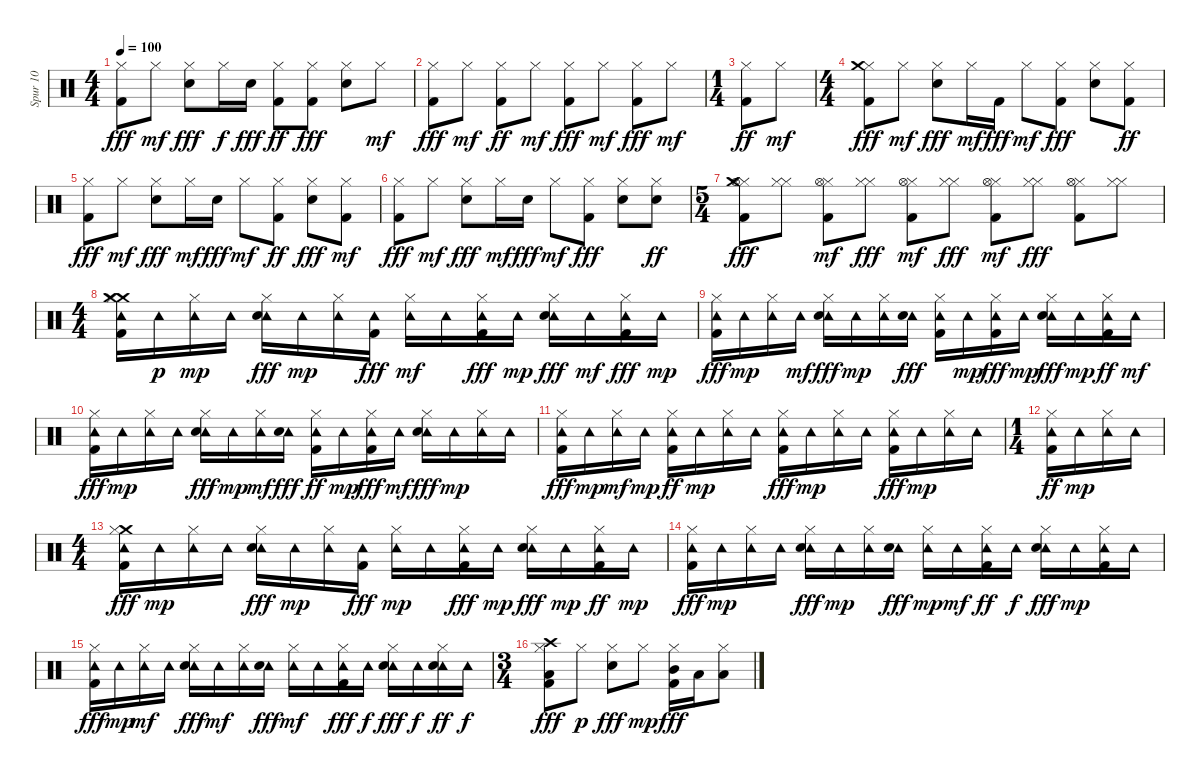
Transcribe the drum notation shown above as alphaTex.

\track ("Spur 10" "Spur 10") {instrument percussion}
\staff {score}
\articulation defaults
\ts (4 4)
\tempo 100
\clef neutral
\ks c
("Hi-Hat (closed)" "Kick (hit) 2").8{dy fff} "Hi-Hat (closed)".8{dy mf} ("Hi-Hat (closed)" "Metronome (bell)").8{dy fff} "Hi-Hat (closed)".16{dy f} "Metronome (bell)".16{dy fff} ("Hi-Hat (closed)" "Kick (hit) 2").8{dy ff} ("Hi-Hat (closed)" "Kick (hit) 2").8{dy fff} ("Hi-Hat (closed)" "Metronome (bell)").8 "Hi-Hat (closed)".8{dy mf} |
("Hi-Hat (closed)" "Kick (hit) 2").8{dy fff} "Hi-Hat (closed)".8{dy mf} ("Hi-Hat (closed)" "Kick (hit) 2").8{dy ff} "Hi-Hat (closed)".8{dy mf} ("Hi-Hat (closed)" "Kick (hit) 2").8{dy fff} "Hi-Hat (closed)".8{dy mf} ("Hi-Hat (closed)" "Kick (hit) 2").8{dy fff} "Hi-Hat (closed)".8{dy mf} |
\ts (1 4)
("Hi-Hat (closed)" "Kick (hit) 2").8{dy ff} "Hi-Hat (closed)".8{dy mf} |
\ts (4 4)
("Hi-Hat (closed)" "Crash medium (hit)" "Kick (hit) 2").8{dy fff} "Hi-Hat (closed)".8{dy mf} ("Hi-Hat (closed)" "Metronome (bell)").8{dy fff} "Hi-Hat (closed)".16{dy mf} "Kick (hit) 2".16{dy fff} "Hi-Hat (closed)".8{dy mf} ("Hi-Hat (closed)" "Kick (hit) 2").8{dy fff} ("Hi-Hat (closed)" "Metronome (bell)").8 ("Hi-Hat (closed)" "Kick (hit) 2").8{dy ff} |
("Hi-Hat (closed)" "Kick (hit) 2").8{dy fff} "Hi-Hat (closed)".8{dy mf} ("Hi-Hat (closed)" "Metronome (bell)").8{dy fff} "Hi-Hat (closed)".16{dy mf} "Metronome (bell)".16{dy fff} "Hi-Hat (closed)".8{dy mf} ("Hi-Hat (closed)" "Kick (hit) 2").8{dy ff} ("Hi-Hat (closed)" "Metronome (bell)").8{dy fff} ("Hi-Hat (closed)" "Kick (hit) 2").8{dy mf} |
("Hi-Hat (closed)" "Kick (hit) 2").8{dy fff} "Hi-Hat (closed)".8{dy mf} ("Hi-Hat (closed)" "Metronome (bell)").8{dy fff} "Hi-Hat (closed)".16{dy mf} "Metronome (bell)".16{dy fff} "Hi-Hat (closed)".8{dy mf} ("Hi-Hat (closed)" "Kick (hit) 2").8{dy fff} ("Hi-Hat (closed)" "Metronome (bell)").8 ("Hi-Hat (closed)" "Metronome (bell)").8{dy ff} |
\ts (5 4)
("Kick (hit) 2" "Hi-Hat (closed)" "Crash medium (hit)" "Hi-Hat (open)").8{dy fff} ("Hi-Hat (closed)" "Hi-Hat (closed)").8 ("Kick (hit) 2" "Hi-Hat (closed)" "Hi-Hat (open)").8{dy mf} ("Hi-Hat (closed)" "Hi-Hat (closed)").8{dy fff} ("Kick (hit) 2" "Hi-Hat (closed)" "Hi-Hat (open)").8{dy mf} ("Hi-Hat (closed)" "Hi-Hat (closed)").8{dy fff} ("Hi-Hat (closed)" "Kick (hit) 2" "Hi-Hat (open)").8{dy mf} ("Hi-Hat (closed)" "Hi-Hat (closed)").8{dy fff} ("Hi-Hat (closed)" "Kick (hit) 2" "Hi-Hat (open)").8 ("Hi-Hat (closed)" "Hi-Hat (closed)").8 |
\ts (4 4)
("Crash medium (hit)" "Hi-Hat (closed)" "Tambourine (hit)" "Crash medium (hit)" "Kick (hit) 2").16 "Tambourine (hit)".16{dy p} ("Hi-Hat (closed)" "Tambourine (hit)").16{dy mp} "Tambourine (hit)".16 ("Hi-Hat (closed)" "Tambourine (hit)" "Metronome (bell)").16{dy fff} "Tambourine (hit)".16{dy mp} ("Hi-Hat (closed)" "Tambourine (hit)").16 ("Tambourine (hit)" "Kick (hit) 2").16{dy fff} ("Hi-Hat (closed)" "Tambourine (hit)").16{dy mf} "Tambourine (hit)".16 ("Hi-Hat (closed)" "Tambourine (hit)" "Kick (hit) 2").16{dy fff} "Tambourine (hit)".16{dy mp} ("Hi-Hat (closed)" "Tambourine (hit)" "Metronome (bell)").16{dy fff} "Tambourine (hit)".16{dy mf} ("Hi-Hat (closed)" "Tambourine (hit)" "Kick (hit) 2").16{dy fff} "Tambourine (hit)".16{dy mp} |
("Hi-Hat (closed)" "Tambourine (hit)" "Kick (hit) 2").16{dy fff} "Tambourine (hit)".16{dy mp} ("Hi-Hat (closed)" "Tambourine (hit)").16 "Tambourine (hit)".16{dy mf} ("Hi-Hat (closed)" "Tambourine (hit)" "Metronome (bell)").16{dy fff} "Tambourine (hit)".16{dy mp} ("Hi-Hat (closed)" "Tambourine (hit)").16 ("Tambourine (hit)" "Metronome (bell)").16{dy fff} ("Hi-Hat (closed)" "Tambourine (hit)" "Kick (hit) 2").16 "Tambourine (hit)".16{dy mp} ("Hi-Hat (closed)" "Tambourine (hit)" "Kick (hit) 2").16{dy fff} "Tambourine (hit)".16{dy mp} ("Hi-Hat (closed)" "Tambourine (hit)" "Metronome (bell)").16{dy fff} "Tambourine (hit)".16{dy mp} ("Hi-Hat (closed)" "Tambourine (hit)" "Kick (hit) 2").16{dy ff} "Tambourine (hit)".16{dy mf} |
("Hi-Hat (closed)" "Tambourine (hit)" "Kick (hit) 2").16{dy fff} "Tambourine (hit)".16{dy mp} ("Hi-Hat (closed)" "Tambourine (hit)").16 "Tambourine (hit)".16 ("Hi-Hat (closed)" "Tambourine (hit)" "Metronome (bell)").16{dy fff} "Tambourine (hit)".16{dy mp} ("Hi-Hat (closed)" "Tambourine (hit)").16{dy mf} ("Tambourine (hit)" "Metronome (bell)").16{dy fff} ("Hi-Hat (closed)" "Tambourine (hit)" "Kick (hit) 2").16{dy ff} "Tambourine (hit)".16{dy mp} ("Hi-Hat (closed)" "Tambourine (hit)" "Kick (hit) 2").16{dy fff} "Tambourine (hit)".16{dy mf} ("Hi-Hat (closed)" "Tambourine (hit)" "Metronome (bell)").16{dy fff} "Tambourine (hit)".16{dy mp} ("Hi-Hat (closed)" "Tambourine (hit)").16 "Tambourine (hit)".16 |
("Hi-Hat (closed)" "Tambourine (hit)" "Kick (hit) 2").16{dy fff} "Tambourine (hit)".16{dy mp} ("Hi-Hat (closed)" "Tambourine (hit)").16{dy mf} "Tambourine (hit)".16{dy mp} ("Hi-Hat (closed)" "Tambourine (hit)" "Kick (hit) 2").16{dy ff} "Tambourine (hit)".16{dy mp} ("Hi-Hat (closed)" "Tambourine (hit)").16 "Tambourine (hit)".16 ("Hi-Hat (closed)" "Tambourine (hit)" "Kick (hit) 2").16{dy fff} "Tambourine (hit)".16{dy mp} ("Hi-Hat (closed)" "Tambourine (hit)").16 "Tambourine (hit)".16 ("Hi-Hat (closed)" "Tambourine (hit)" "Kick (hit) 2").16{dy fff} "Tambourine (hit)".16{dy mp} ("Hi-Hat (closed)" "Tambourine (hit)").16 "Tambourine (hit)".16 |
\ts (1 4)
("Hi-Hat (closed)" "Tambourine (hit)" "Kick (hit) 2").16{dy ff} "Tambourine (hit)".16{dy mp} ("Hi-Hat (closed)" "Tambourine (hit)").16 "Tambourine (hit)".16 |
\ts (4 4)
("Crash medium (hit)" "Hi-Hat (closed)" "Tambourine (hit)" "Kick (hit) 2").16{dy fff} "Tambourine (hit)".16{dy mp} ("Hi-Hat (closed)" "Tambourine (hit)").16 "Tambourine (hit)".16 ("Hi-Hat (closed)" "Tambourine (hit)" "Metronome (bell)").16{dy fff} "Tambourine (hit)".16{dy mp} ("Hi-Hat (closed)" "Tambourine (hit)").16 ("Tambourine (hit)" "Kick (hit) 2").16{dy fff} ("Hi-Hat (closed)" "Tambourine (hit)").16{dy mp} "Tambourine (hit)".16 ("Hi-Hat (closed)" "Tambourine (hit)" "Kick (hit) 2").16{dy fff} "Tambourine (hit)".16{dy mp} ("Hi-Hat (closed)" "Tambourine (hit)" "Metronome (bell)").16{dy fff} "Tambourine (hit)".16{dy mp} ("Hi-Hat (closed)" "Tambourine (hit)" "Kick (hit) 2").16{dy ff} "Tambourine (hit)".16{dy mp} |
("Hi-Hat (closed)" "Tambourine (hit)" "Kick (hit) 2").16{dy fff} "Tambourine (hit)".16{dy mp} ("Hi-Hat (closed)" "Tambourine (hit)").16 "Tambourine (hit)".16 ("Hi-Hat (closed)" "Tambourine (hit)" "Metronome (bell)").16{dy fff} "Tambourine (hit)".16{dy mp} ("Hi-Hat (closed)" "Tambourine (hit)").16 ("Tambourine (hit)" "Metronome (bell)").16{dy fff} ("Hi-Hat (closed)" "Tambourine (hit)").16{dy mp} "Tambourine (hit)".16{dy mf} ("Hi-Hat (closed)" "Tambourine (hit)" "Kick (hit) 2").16{dy ff} "Tambourine (hit)".16{dy f} ("Hi-Hat (closed)" "Tambourine (hit)" "Metronome (bell)").16{dy fff} "Tambourine (hit)".16{dy mp} ("Hi-Hat (closed)" "Tambourine (hit)" "Kick (hit) 2").16 "Tambourine (hit)".16 |
("Hi-Hat (closed)" "Tambourine (hit)" "Kick (hit) 2").16{dy fff} "Tambourine (hit)".16{dy mp} ("Hi-Hat (closed)" "Tambourine (hit)").16{dy mf} "Tambourine (hit)".16 ("Hi-Hat (closed)" "Tambourine (hit)" "Metronome (bell)").16{dy fff} "Tambourine (hit)".16{dy mf} ("Hi-Hat (closed)" "Tambourine (hit)").16 ("Tambourine (hit)" "Metronome (bell)").16{dy fff} ("Hi-Hat (closed)" "Tambourine (hit)").16{dy mf} "Tambourine (hit)".16 ("Hi-Hat (closed)" "Tambourine (hit)" "Kick (hit) 2").16{dy fff} "Tambourine (hit)".16{dy f} ("Hi-Hat (closed)" "Tambourine (hit)" "Metronome (bell)").16{dy fff} "Tambourine (hit)".16{dy f} ("Hi-Hat (closed)" "Tambourine (hit)" "Metronome (bell)").16{dy ff} "Tambourine (hit)".16{dy f} |
\ts (3 4)
("Hi-Hat (closed)" "Crash high (hit)" "Kick (hit) 2" "Low Tom (hit)").8{dy fff} "Hi-Hat (closed)".8{dy p} ("Hi-Hat (closed)" "Metronome (bell)").8{dy fff} "Hi-Hat (closed)".8{dy mp} ("Hi-Hat (closed)" "Kick (hit) 2" "Mid Tom (hit)").16{dy fff} "Low Tom (hit)".16 ("Hi-Hat (closed)" "Low Tom (hit)").8
